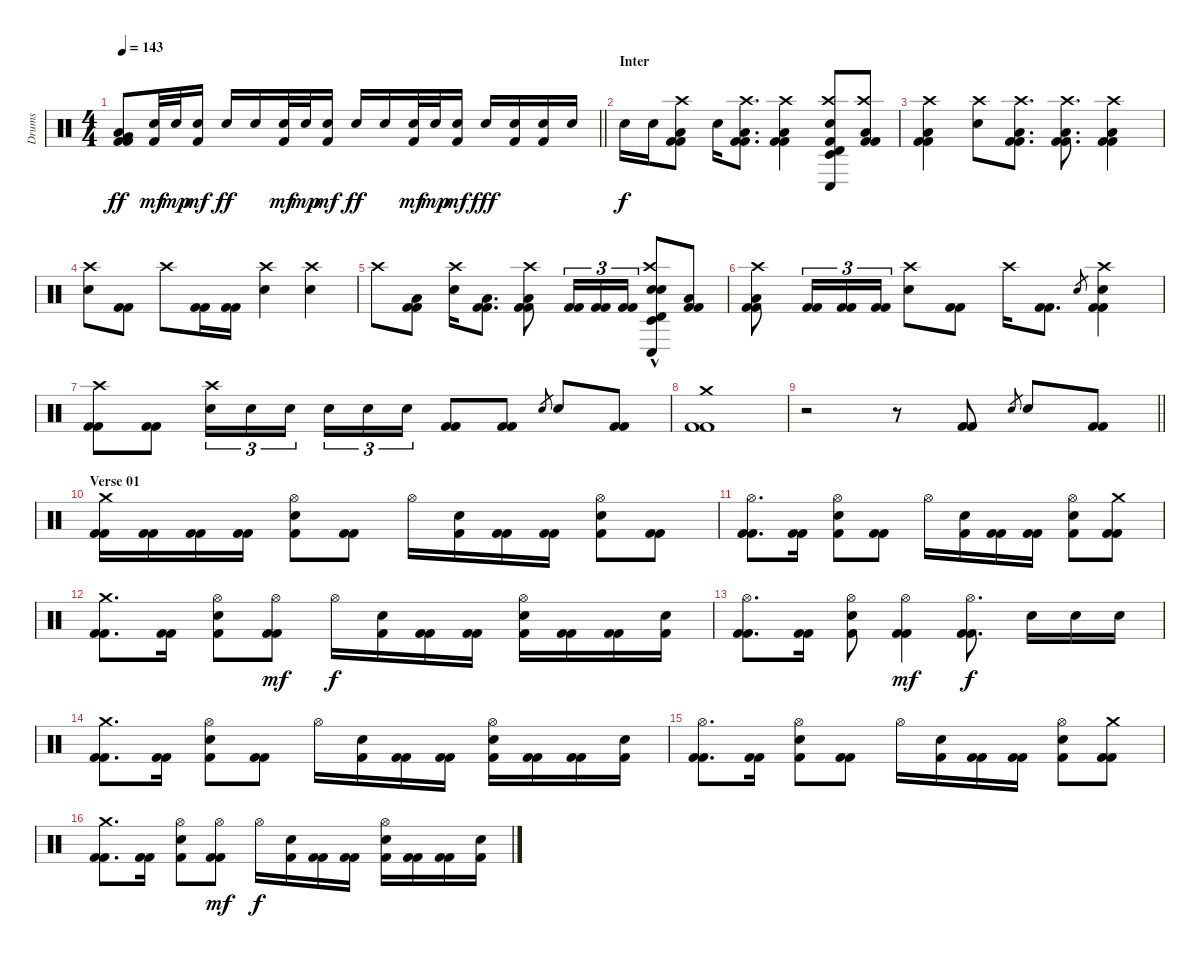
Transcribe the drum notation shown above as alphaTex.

\track ("Drums" "Drums") {instrument percussion}
\staff {score}
\articulation defaults
\ts (4 4)
\tempo 143
\clef neutral
\barLineRight lightlight
\ks c
("Very Low Tom (hit)" "Low Floor Tom (hit)" "Kick (hit) 2" "Kick (hit) 2").8{dy ff} ("Electric Snare (hit)" "Kick (hit) 2").32{dy mf} "Electric Snare (hit)".32{dy mp} ("Electric Snare (hit)" "Kick (hit) 2").16{dy mf} "Electric Snare (hit)".16{dy ff} "Electric Snare (hit)".16 ("Electric Snare (hit)" "Kick (hit) 2").32{dy mf} "Electric Snare (hit)".32{dy mp} ("Electric Snare (hit)" "Kick (hit) 2").16{dy mf} "Electric Snare (hit)".16{dy ff} "Electric Snare (hit)".16 ("Electric Snare (hit)" "Kick (hit) 2").32{dy mf} "Electric Snare (hit)".32{dy mp} ("Electric Snare (hit)" "Kick (hit) 2").16{dy mf} "Electric Snare (hit)".16{dy fff} ("Electric Snare (hit)" "Kick (hit) 2").16 ("Electric Snare (hit)" "Kick (hit) 2").16 "Electric Snare (hit)".16 |
\section ("" "Inter")
"Electric Snare (hit)".16{dy f} "Electric Snare (hit)".16 ("Crash high (hit)" "Low Floor Tom (hit)" "Kick (hit) 2" "Kick (hit) 2").8 "Electric Snare (hit)".16 ("Crash high (hit)" "Low Floor Tom (hit)" "Kick (hit) 2" "Kick (hit) 2").8{d} ("Crash high (hit)" "Low Floor Tom (hit)" "Kick (hit) 2" "Kick (hit) 2").4 ("Timbale low (hit)" "Timbale high (hit)" "Conga low (hit)" "Electric Snare (hit)" "Crash high (hit)" "Kick (hit) 2").8 ("Crash high (hit)" "Low Floor Tom (hit)" "Kick (hit) 2" "Kick (hit) 2").8 |
("Crash high (hit)" "Low Floor Tom (hit)" "Kick (hit) 2" "Kick (hit) 2").4 ("Crash high (hit)" "Electric Snare (hit)").8 ("Crash high (hit)" "Low Floor Tom (hit)" "Kick (hit) 2" "Kick (hit) 2").8{d} ("Crash high (hit)" "Low Floor Tom (hit)" "Kick (hit) 2" "Kick (hit) 2").8{d} ("Crash high (hit)" "Low Floor Tom (hit)" "Kick (hit) 2" "Kick (hit) 2").4 |
("Crash high (hit)" "Electric Snare (hit)").8 ("Kick (hit) 2" "Kick (hit) 2").8 "Crash high (hit)".8 ("Kick (hit) 2" "Kick (hit) 2").16 ("Kick (hit) 2" "Kick (hit) 2").16 ("Crash high (hit)" "Electric Snare (hit)").4 ("Crash high (hit)" "Electric Snare (hit)").4 |
"Crash high (hit)".8 ("Low Floor Tom (hit)" "Kick (hit) 2" "Kick (hit) 2").8 ("Crash high (hit)" "Electric Snare (hit)").16 ("Low Floor Tom (hit)" "Kick (hit) 2" "Kick (hit) 2").8{d} ("Crash high (hit)" "Low Floor Tom (hit)" "Kick (hit) 2" "Kick (hit) 2").8 ("Kick (hit) 2" "Kick (hit) 2").16{tu (3 2)} ("Kick (hit) 2" "Kick (hit) 2").16{tu (3 2)} ("Kick (hit) 2" "Kick (hit) 2").16{tu (3 2)} ("Timbale low (hit)" "Timbale high (hit)" "Conga low (hit)" "Electric Snare (hit)" "Crash high (hit)"{hac} "Snare (hit) 2").8 ("Low Floor Tom (hit)" "Kick (hit) 2" "Kick (hit) 2").8 |
("Crash high (hit)" "Low Floor Tom (hit)" "Kick (hit) 2" "Kick (hit) 2").8 ("Kick (hit) 2" "Kick (hit) 2").16{tu (3 2)} ("Kick (hit) 2" "Kick (hit) 2").16{tu (3 2)} ("Kick (hit) 2" "Kick (hit) 2").16{tu (3 2)} ("Crash high (hit)" "Electric Snare (hit)").8 ("Kick (hit) 2" "Kick (hit) 2").8 "Crash high (hit)".16 ("Kick (hit) 2" "Kick (hit) 2").8{d} "Electric Snare (hit)".8{gr} ("Crash high (hit)" "Electric Snare (hit)" "Kick (hit) 2" "Kick (hit) 2").4 |
("Crash high (hit)" "Kick (hit) 2" "Kick (hit) 2").8 ("Kick (hit) 2" "Kick (hit) 2").8 ("Crash high (hit)" "Electric Snare (hit)").16{tu (3 2)} "Electric Snare (hit)".16{tu (3 2)} "Electric Snare (hit)".16{tu (3 2) beam splitsecondary} "Electric Snare (hit)".16{tu (3 2)} "Electric Snare (hit)".16{tu (3 2)} "Electric Snare (hit)".16{tu (3 2)} ("Kick (hit) 2" "Kick (hit) 2").8 ("Kick (hit) 2" "Kick (hit) 2").8 "Electric Snare (hit)".8{gr} "Electric Snare (hit)".8 ("Kick (hit) 2" "Kick (hit) 2").8 |
("Crash medium (hit)" "Kick (hit) 2" "Kick (hit) 2").1 |
\barLineRight lightlight
r.2 r.8 ("Kick (hit) 2" "Kick (hit) 2").8 "Electric Snare (hit)".8{gr} "Electric Snare (hit)".8 ("Kick (hit) 2" "Kick (hit) 2").8 |
\section ("" "Verse 01")
("Crash medium (hit)" "Kick (hit) 2" "Kick (hit) 2").16 ("Kick (hit) 2" "Kick (hit) 2").16 ("Kick (hit) 2" "Kick (hit) 2").16 ("Kick (hit) 2" "Kick (hit) 2").16 ("Hi-Hat (open)" "Electric Snare (hit)" "Kick (hit) 2").8 ("Kick (hit) 2" "Kick (hit) 2").8 "Hi-Hat (open)".16 ("Electric Snare (hit)" "Kick (hit) 2").16 ("Kick (hit) 2" "Kick (hit) 2").16 ("Kick (hit) 2" "Kick (hit) 2").16 ("Hi-Hat (open)" "Electric Snare (hit)" "Kick (hit) 2").8 ("Kick (hit) 2" "Kick (hit) 2").8 |
("Hi-Hat (open)" "Kick (hit) 2" "Kick (hit) 2").8{d} ("Kick (hit) 2" "Kick (hit) 2").16 ("Hi-Hat (open)" "Electric Snare (hit)" "Kick (hit) 2").8 ("Kick (hit) 2" "Kick (hit) 2").8 "Hi-Hat (open)".16 ("Electric Snare (hit)" "Kick (hit) 2").16 ("Kick (hit) 2" "Kick (hit) 2").16 ("Kick (hit) 2" "Kick (hit) 2").16 ("Hi-Hat (open)" "Electric Snare (hit)" "Kick (hit) 2").8 ("Crash medium (hit)" "Kick (hit) 2" "Kick (hit) 2").8 |
("Crash medium (hit)" "Kick (hit) 2" "Kick (hit) 2").8{d} ("Kick (hit) 2" "Kick (hit) 2").16 ("Hi-Hat (open)" "Electric Snare (hit)" "Kick (hit) 2").8 ("Hi-Hat (open)" "Kick (hit) 2" "Kick (hit) 2").8{dy mf} "Hi-Hat (open)".16{dy f} ("Electric Snare (hit)" "Kick (hit) 2").16 ("Kick (hit) 2" "Kick (hit) 2").16 ("Kick (hit) 2" "Kick (hit) 2").16 ("Hi-Hat (open)" "Electric Snare (hit)" "Kick (hit) 2").16 ("Kick (hit) 2" "Kick (hit) 2").16 ("Kick (hit) 2" "Kick (hit) 2").16 ("Electric Snare (hit)" "Kick (hit) 2").16 |
("Hi-Hat (open)" "Kick (hit) 2" "Kick (hit) 2").8{d} ("Kick (hit) 2" "Kick (hit) 2").16 ("Hi-Hat (open)" "Electric Snare (hit)" "Kick (hit) 2").8 ("Hi-Hat (open)" "Kick (hit) 2" "Kick (hit) 2").4{dy mf} ("Hi-Hat (open)" "Kick (hit) 2" "Kick (hit) 2").8{d dy f} "Electric Snare (hit)".16 "Electric Snare (hit)".16 "Electric Snare (hit)".16 |
("Crash medium (hit)" "Kick (hit) 2" "Kick (hit) 2").8{d} ("Kick (hit) 2" "Kick (hit) 2").16 ("Hi-Hat (open)" "Electric Snare (hit)" "Kick (hit) 2").8 ("Kick (hit) 2" "Kick (hit) 2").8 "Hi-Hat (open)".16 ("Electric Snare (hit)" "Kick (hit) 2").16 ("Kick (hit) 2" "Kick (hit) 2").16 ("Kick (hit) 2" "Kick (hit) 2").16 ("Hi-Hat (open)" "Electric Snare (hit)" "Kick (hit) 2").16 ("Kick (hit) 2" "Kick (hit) 2").16 ("Kick (hit) 2" "Kick (hit) 2").16 ("Electric Snare (hit)" "Kick (hit) 2").16 |
("Hi-Hat (open)" "Kick (hit) 2" "Kick (hit) 2").8{d} ("Kick (hit) 2" "Kick (hit) 2").16 ("Hi-Hat (open)" "Electric Snare (hit)" "Kick (hit) 2").8 ("Kick (hit) 2" "Kick (hit) 2").8 "Hi-Hat (open)".16 ("Electric Snare (hit)" "Kick (hit) 2").16 ("Kick (hit) 2" "Kick (hit) 2").16 ("Kick (hit) 2" "Kick (hit) 2").16 ("Hi-Hat (open)" "Electric Snare (hit)" "Kick (hit) 2").8 ("Crash medium (hit)" "Kick (hit) 2" "Kick (hit) 2").8 |
("Crash medium (hit)" "Kick (hit) 2" "Kick (hit) 2").8{d} ("Kick (hit) 2" "Kick (hit) 2").16 ("Hi-Hat (open)" "Electric Snare (hit)" "Kick (hit) 2").8 ("Hi-Hat (open)" "Kick (hit) 2" "Kick (hit) 2").8{dy mf} "Hi-Hat (open)".16{dy f} ("Electric Snare (hit)" "Kick (hit) 2").16 ("Kick (hit) 2" "Kick (hit) 2").16 ("Kick (hit) 2" "Kick (hit) 2").16 ("Hi-Hat (open)" "Electric Snare (hit)" "Kick (hit) 2").16 ("Kick (hit) 2" "Kick (hit) 2").16 ("Kick (hit) 2" "Kick (hit) 2").16 ("Electric Snare (hit)" "Kick (hit) 2").16
